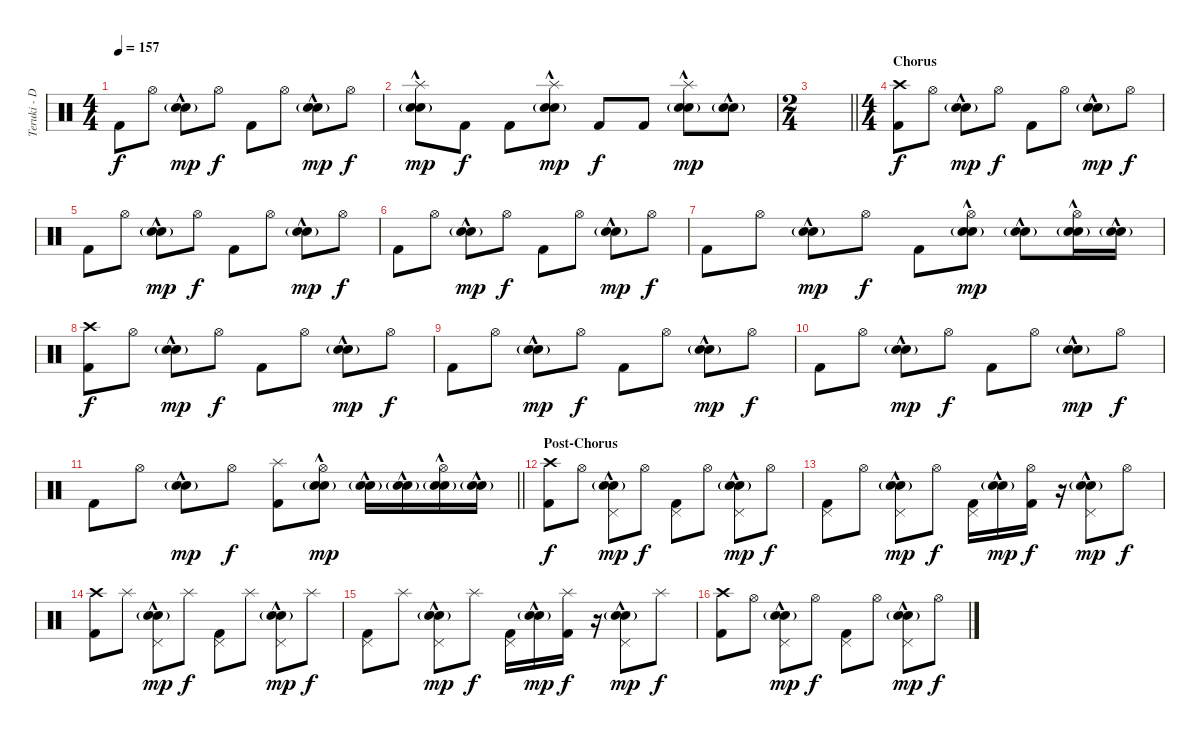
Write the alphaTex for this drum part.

\track ("Teruki - Drums" "Teruki - D") {instrument percussion}
\staff {score}
\articulation defaults
\ts (4 4)
\tempo 157
\clef neutral
\ks c "Kick (hit) 2".8{dy f} "Hi-Hat (open)".8
("Electric Snare (hit)"{hac} "Snare (hit) 2"{g}).8{dy mp} "Hi-Hat (open)".8{dy f} "Kick (hit) 2".8 "Hi-Hat (open)".8 ("Electric Snare (hit)"{hac} "Snare (hit) 2"{g}).8{dy mp} "Hi-Hat (open)".8{dy f} |
("Splash (hit)" "Electric Snare (hit)"{hac} "Snare (hit) 2"{g}).8{dy mp} "Kick (hit) 2".8{dy f} "Kick (hit) 2".8 ("Splash (hit)" "Electric Snare (hit)"{hac} "Snare (hit) 2"{g}).8{dy mp} "Kick (hit) 2".8{dy f} "Kick (hit) 2".8 ("Splash (hit)" "Electric Snare (hit)"{hac} "Snare (hit) 2"{g}).8{dy mp} ("Electric Snare (hit)"{hac} "Snare (hit) 2"{g}).8 |
\ts (2 4)
\barLineRight lightlight
|
\ts (4 4)
\section ("" "Chorus")
("Crash high (hit)" "Kick (hit) 2").8{dy f} "Hi-Hat (open)".8 ("Electric Snare (hit)"{hac} "Snare (hit) 2"{g}).8{dy mp} "Hi-Hat (open)".8{dy f} "Kick (hit) 2".8 "Hi-Hat (open)".8 ("Electric Snare (hit)"{hac} "Snare (hit) 2"{g}).8{dy mp} "Hi-Hat (open)".8{dy f} |
"Kick (hit) 2".8 "Hi-Hat (open)".8 ("Electric Snare (hit)"{hac} "Snare (hit) 2"{g}).8{dy mp} "Hi-Hat (open)".8{dy f} "Kick (hit) 2".8 "Hi-Hat (open)".8 ("Electric Snare (hit)"{hac} "Snare (hit) 2"{g}).8{dy mp} "Hi-Hat (open)".8{dy f} |
"Kick (hit) 2".8 "Hi-Hat (open)".8 ("Electric Snare (hit)"{hac} "Snare (hit) 2"{g}).8{dy mp} "Hi-Hat (open)".8{dy f} "Kick (hit) 2".8 "Hi-Hat (open)".8 ("Electric Snare (hit)"{hac} "Snare (hit) 2"{g}).8{dy mp} "Hi-Hat (open)".8{dy f} |
"Kick (hit) 2".8 "Hi-Hat (open)".8 ("Electric Snare (hit)"{hac} "Snare (hit) 2"{g}).8{dy mp} "Hi-Hat (open)".8{dy f} "Kick (hit) 2".8 ("Hi-Hat (open)" "Electric Snare (hit)"{hac} "Snare (hit) 2"{g}).8{dy mp} ("Electric Snare (hit)"{hac} "Snare (hit) 2"{g}).8 ("Hi-Hat (open)" "Electric Snare (hit)"{hac} "Snare (hit) 2"{g}).16 ("Electric Snare (hit)"{hac} "Snare (hit) 2"{g}).16 |
("Crash high (hit)" "Kick (hit) 2").8{dy f} "Hi-Hat (open)".8 ("Electric Snare (hit)"{hac} "Snare (hit) 2"{g}).8{dy mp} "Hi-Hat (open)".8{dy f} "Kick (hit) 2".8 "Hi-Hat (open)".8 ("Electric Snare (hit)"{hac} "Snare (hit) 2"{g}).8{dy mp} "Hi-Hat (open)".8{dy f} |
"Kick (hit) 2".8 "Hi-Hat (open)".8 ("Electric Snare (hit)"{hac} "Snare (hit) 2"{g}).8{dy mp} "Hi-Hat (open)".8{dy f} "Kick (hit) 2".8 "Hi-Hat (open)".8 ("Electric Snare (hit)"{hac} "Snare (hit) 2"{g}).8{dy mp} "Hi-Hat (open)".8{dy f} |
"Kick (hit) 2".8 "Hi-Hat (open)".8 ("Electric Snare (hit)"{hac} "Snare (hit) 2"{g}).8{dy mp} "Hi-Hat (open)".8{dy f} "Kick (hit) 2".8 "Hi-Hat (open)".8 ("Electric Snare (hit)"{hac} "Snare (hit) 2"{g}).8{dy mp} "Hi-Hat (open)".8{dy f} |
\barLineRight lightlight "Kick (hit) 2".8 "Hi-Hat (open)".8
("Electric Snare (hit)"{hac} "Snare (hit) 2"{g}).8{dy mp} "Hi-Hat (open)".8{dy f} ("Splash (hit)" "Kick (hit) 2").8 ("Hi-Hat (open)" "Electric Snare (hit)"{hac} "Snare (hit) 2"{g}).8{dy mp} ("Electric Snare (hit)"{hac} "Snare (hit) 2"{g}).16 ("Electric Snare (hit)"{hac} "Snare (hit) 2"{g}).16 ("Hi-Hat (open)" "Electric Snare (hit)"{hac} "Snare (hit) 2"{g}).16 ("Electric Snare (hit)"{hac} "Snare (hit) 2"{g}).16 |
\section ("" "Post-Chorus")
("Crash high (hit)" "Kick (hit) 2").8{dy f} "Hi-Hat (open)".8 ("Pedal Hi-Hat (hit)" "Electric Snare (hit)"{hac} "Snare (hit) 2"{g}).8{dy mp} "Hi-Hat (open)".8{dy f} ("Pedal Hi-Hat (hit)" "Kick (hit) 2").8 "Hi-Hat (open)".8 ("Pedal Hi-Hat (hit)" "Electric Snare (hit)"{hac} "Snare (hit) 2"{g}).8{dy mp} "Hi-Hat (open)".8{dy f} |
("Pedal Hi-Hat (hit)" "Kick (hit) 2").8 "Hi-Hat (open)".8 ("Pedal Hi-Hat (hit)" "Electric Snare (hit)"{hac} "Snare (hit) 2"{g}).8{dy mp} "Hi-Hat (open)".8{dy f} ("Pedal Hi-Hat (hit)" "Kick (hit) 2").16 ("Electric Snare (hit)"{hac} "Snare (hit) 2"{g}).16{dy mp} ("Hi-Hat (open)" "Kick (hit) 2").16{dy f} r.16 ("Pedal Hi-Hat (hit)" "Electric Snare (hit)"{hac} "Snare (hit) 2"{g}).8{dy mp} "Hi-Hat (open)".8{dy f} |
("Crash high (hit)" "Kick (hit) 2").8 "Splash (hit)".8 ("Pedal Hi-Hat (hit)" "Electric Snare (hit)"{hac} "Snare (hit) 2"{g}).8{dy mp} "Splash (hit)".8{dy f} ("Pedal Hi-Hat (hit)" "Kick (hit) 2").8 "Splash (hit)".8 ("Pedal Hi-Hat (hit)" "Electric Snare (hit)"{hac} "Snare (hit) 2"{g}).8{dy mp} "Splash (hit)".8{dy f} |
("Pedal Hi-Hat (hit)" "Kick (hit) 2").8 "Splash (hit)".8 ("Pedal Hi-Hat (hit)" "Electric Snare (hit)"{hac} "Snare (hit) 2"{g}).8{dy mp} "Splash (hit)".8{dy f} ("Pedal Hi-Hat (hit)" "Kick (hit) 2").16 ("Electric Snare (hit)"{hac} "Snare (hit) 2"{g}).16{dy mp} ("Splash (hit)" "Kick (hit) 2").16{dy f} r.16 ("Pedal Hi-Hat (hit)" "Electric Snare (hit)"{hac} "Snare (hit) 2"{g}).8{dy mp} "Splash (hit)".8{dy f} |
("Crash high (hit)" "Kick (hit) 2").8 "Hi-Hat (open)".8 ("Pedal Hi-Hat (hit)" "Electric Snare (hit)"{hac} "Snare (hit) 2"{g}).8{dy mp} "Hi-Hat (open)".8{dy f} ("Pedal Hi-Hat (hit)" "Kick (hit) 2").8 "Hi-Hat (open)".8 ("Pedal Hi-Hat (hit)" "Electric Snare (hit)"{hac} "Snare (hit) 2"{g}).8{dy mp} "Hi-Hat (open)".8{dy f}
